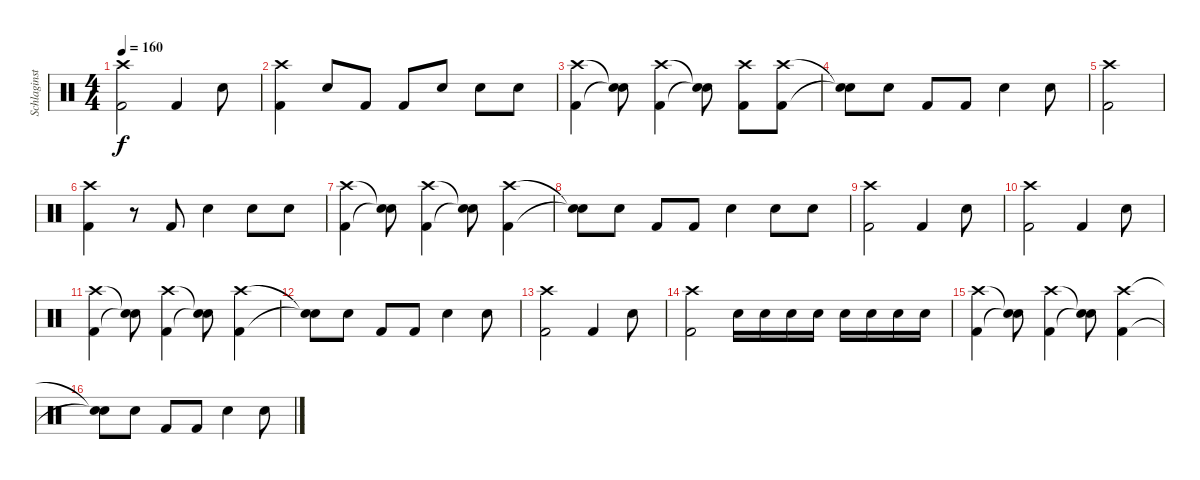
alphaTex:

\track ("Schlaginstrumente - Auswahl" "Schlaginst") {instrument percussion}
\staff {score}
\articulation defaults
\ts (4 4)
\tempo 160
\clef neutral
\ks c
("Crash high (hit)" "Kick (hit) 2").2{dy f} "Kick (hit) 2".4 "Electric Snare (hit)".8 |
("Crash high (hit)" "Kick (hit) 2").4 "Electric Snare (hit)".8 "Kick (hit) 2".8 "Kick (hit) 2".8 "Electric Snare (hit)".8 "Electric Snare (hit)".8 "Electric Snare (hit)".8 |
("Crash high (hit)" "Kick (hit) 2").4 ("Snare (hit)"{t} "Snare (hit)"{t}).8 ("Crash high (hit)" "Kick (hit) 2").4 ("Snare (hit)"{t} "Snare (hit)"{t}).8 ("Crash high (hit)" "Kick (hit) 2").8 ("Crash high (hit)" "Kick (hit) 2").8 |
("Snare (hit)"{t} "Snare (hit)"{t}).8 "Electric Snare (hit)".8 "Kick (hit) 2".8 "Kick (hit) 2".8 "Electric Snare (hit)".4 "Electric Snare (hit)".8 |
("Crash high (hit)" "Kick (hit) 2").2 |
("Crash high (hit)" "Kick (hit) 2").4 r.8 "Kick (hit) 2".8 "Electric Snare (hit)".4 "Electric Snare (hit)".8 "Electric Snare (hit)".8 |
("Crash high (hit)" "Kick (hit) 2").4 ("Snare (hit)"{t} "Snare (hit)"{t}).8 ("Crash high (hit)" "Kick (hit) 2").4 ("Snare (hit)"{t} "Snare (hit)"{t}).8 ("Crash high (hit)" "Kick (hit) 2").4 |
("Snare (hit)"{t} "Snare (hit)"{t}).8 "Electric Snare (hit)".8 "Kick (hit) 2".8 "Kick (hit) 2".8 "Electric Snare (hit)".4 "Electric Snare (hit)".8 "Electric Snare (hit)".8 |
("Crash high (hit)" "Kick (hit) 2").2 "Kick (hit) 2".4 "Electric Snare (hit)".8 |
("Crash high (hit)" "Kick (hit) 2").2 "Kick (hit) 2".4 "Electric Snare (hit)".8 |
("Crash high (hit)" "Kick (hit) 2").4 ("Snare (hit)"{t} "Snare (hit)"{t}).8 ("Crash high (hit)" "Kick (hit) 2").4 ("Snare (hit)"{t} "Snare (hit)"{t}).8 ("Crash high (hit)" "Kick (hit) 2").4 |
("Snare (hit)"{t} "Snare (hit)"{t}).8 "Electric Snare (hit)".8 "Kick (hit) 2".8 "Kick (hit) 2".8 "Electric Snare (hit)".4 "Electric Snare (hit)".8 |
("Crash high (hit)" "Kick (hit) 2").2 "Kick (hit) 2".4 "Electric Snare (hit)".8 |
("Crash high (hit)" "Kick (hit) 2").2 "Electric Snare (hit)".16 "Electric Snare (hit)".16 "Electric Snare (hit)".16 "Electric Snare (hit)".16 "Electric Snare (hit)".16 "Electric Snare (hit)".16 "Electric Snare (hit)".16 "Electric Snare (hit)".16 |
("Crash high (hit)" "Kick (hit) 2").4 ("Snare (hit)"{t} "Snare (hit)"{t}).8 ("Crash high (hit)" "Kick (hit) 2").4 ("Snare (hit)"{t} "Snare (hit)"{t}).8 ("Crash high (hit)" "Kick (hit) 2").4 |
("Snare (hit)"{t} "Snare (hit)"{t}).8 "Electric Snare (hit)".8 "Kick (hit) 2".8 "Kick (hit) 2".8 "Electric Snare (hit)".4 "Electric Snare (hit)".8
